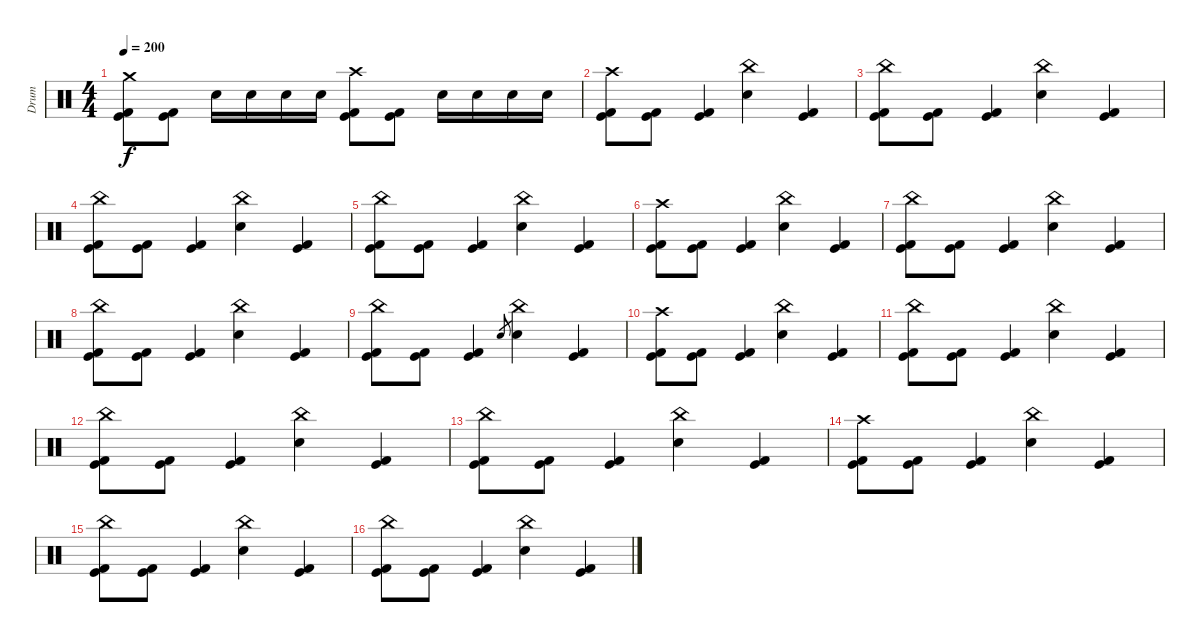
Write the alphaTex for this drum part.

\track ("Drum" "Drum") {instrument percussion}
\staff {score}
\articulation defaults
\ts (4 4)
\tempo 200
\clef neutral
\ks c
("Crash medium (hit)" "Kick (hit)" "Kick (hit) 2").8{dy f} ("Kick (hit)" "Kick (hit) 2").8 "Electric Snare (hit)".16 "Electric Snare (hit)".16 "Electric Snare (hit)".16 "Electric Snare (hit)".16 ("Crash high (hit)" "Kick (hit)" "Kick (hit) 2").8 ("Kick (hit)" "Kick (hit) 2").8 "Electric Snare (hit)".16 "Electric Snare (hit)".16 "Electric Snare (hit)".16 "Electric Snare (hit)".16 |
("Crash high (hit)" "Kick (hit)" "Kick (hit) 2").8 ("Kick (hit)" "Kick (hit) 2").8 ("Kick (hit)" "Kick (hit) 2").4 ("China (hit)" "Electric Snare (hit)").4 ("Kick (hit)" "Kick (hit) 2").4 |
("China (hit)" "Kick (hit)" "Kick (hit) 2").8 ("Kick (hit)" "Kick (hit) 2").8 ("Kick (hit)" "Kick (hit) 2").4 ("China (hit)" "Electric Snare (hit)").4 ("Kick (hit)" "Kick (hit) 2").4 |
("China (hit)" "Kick (hit)" "Kick (hit) 2").8 ("Kick (hit)" "Kick (hit) 2").8 ("Kick (hit)" "Kick (hit) 2").4 ("China (hit)" "Electric Snare (hit)").4 ("Kick (hit)" "Kick (hit) 2").4 |
("China (hit)" "Kick (hit)" "Kick (hit) 2").8 ("Kick (hit)" "Kick (hit) 2").8 ("Kick (hit)" "Kick (hit) 2").4 ("China (hit)" "Electric Snare (hit)").4 ("Kick (hit)" "Kick (hit) 2").4 |
("Crash high (hit)" "Kick (hit)" "Kick (hit) 2").8 ("Kick (hit)" "Kick (hit) 2").8 ("Kick (hit)" "Kick (hit) 2").4 ("China (hit)" "Electric Snare (hit)").4 ("Kick (hit)" "Kick (hit) 2").4 |
("China (hit)" "Kick (hit)" "Kick (hit) 2").8 ("Kick (hit)" "Kick (hit) 2").8 ("Kick (hit)" "Kick (hit) 2").4 ("China (hit)" "Electric Snare (hit)").4 ("Kick (hit)" "Kick (hit) 2").4 |
("China (hit)" "Kick (hit)" "Kick (hit) 2").8 ("Kick (hit)" "Kick (hit) 2").8 ("Kick (hit)" "Kick (hit) 2").4 ("China (hit)" "Electric Snare (hit)").4 ("Kick (hit)" "Kick (hit) 2").4 |
("China (hit)" "Kick (hit)" "Kick (hit) 2").8 ("Kick (hit)" "Kick (hit) 2").8 ("Kick (hit)" "Kick (hit) 2").4 "Electric Snare (hit)".8{gr} ("China (hit)" "Electric Snare (hit)").4 ("Kick (hit)" "Kick (hit) 2").4 |
("Crash high (hit)" "Kick (hit)" "Kick (hit) 2").8 ("Kick (hit)" "Kick (hit) 2").8 ("Kick (hit)" "Kick (hit) 2").4 ("China (hit)" "Electric Snare (hit)").4 ("Kick (hit)" "Kick (hit) 2").4 |
("China (hit)" "Kick (hit)" "Kick (hit) 2").8 ("Kick (hit)" "Kick (hit) 2").8 ("Kick (hit)" "Kick (hit) 2").4 ("China (hit)" "Electric Snare (hit)").4 ("Kick (hit)" "Kick (hit) 2").4 |
("China (hit)" "Kick (hit)" "Kick (hit) 2").8 ("Kick (hit)" "Kick (hit) 2").8 ("Kick (hit)" "Kick (hit) 2").4 ("China (hit)" "Electric Snare (hit)").4 ("Kick (hit)" "Kick (hit) 2").4 |
("China (hit)" "Kick (hit)" "Kick (hit) 2").8 ("Kick (hit)" "Kick (hit) 2").8 ("Kick (hit)" "Kick (hit) 2").4 ("China (hit)" "Electric Snare (hit)").4 ("Kick (hit)" "Kick (hit) 2").4 |
("Crash high (hit)" "Kick (hit)" "Kick (hit) 2").8 ("Kick (hit)" "Kick (hit) 2").8 ("Kick (hit)" "Kick (hit) 2").4 ("China (hit)" "Electric Snare (hit)").4 ("Kick (hit)" "Kick (hit) 2").4 |
("China (hit)" "Kick (hit)" "Kick (hit) 2").8 ("Kick (hit)" "Kick (hit) 2").8 ("Kick (hit)" "Kick (hit) 2").4 ("China (hit)" "Electric Snare (hit)").4 ("Kick (hit)" "Kick (hit) 2").4 |
("China (hit)" "Kick (hit)" "Kick (hit) 2").8 ("Kick (hit)" "Kick (hit) 2").8 ("Kick (hit)" "Kick (hit) 2").4 ("China (hit)" "Electric Snare (hit)").4 ("Kick (hit)" "Kick (hit) 2").4
